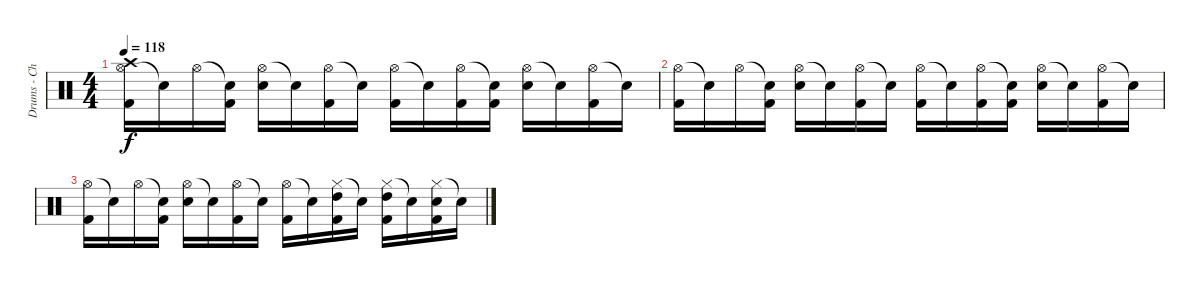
\track ("Drums - Chad" "Drums - Ch") {instrument percussion}
\staff {score}
\articulation defaults
\ts (4 4)
\tempo 118
\clef neutral
\ks c
("Hi-Hat (open)" "Kick (hit) 2" "Crash high (hit)").16{dy f} "Snare (hit)"{t}.16 "Hi-Hat (open)".16 ("Snare (hit)"{t} "Kick (hit) 2").16 ("Hi-Hat (open)" "Electric Snare (hit)").16 "Snare (hit)"{t}.16 ("Hi-Hat (open)" "Kick (hit) 2").16 "Snare (hit)"{t}.16 ("Hi-Hat (open)" "Kick (hit) 2").16 "Snare (hit)"{t}.16 ("Hi-Hat (open)" "Kick (hit) 2").16 ("Snare (hit)"{t} "Kick (hit) 2").16 ("Hi-Hat (open)" "Electric Snare (hit)").16 "Snare (hit)"{t}.16 ("Hi-Hat (open)" "Kick (hit) 2").16 "Snare (hit)"{t}.16 |
("Hi-Hat (open)" "Kick (hit) 2").16 "Snare (hit)"{t}.16 "Hi-Hat (open)".16 ("Snare (hit)"{t} "Kick (hit) 2").16 ("Hi-Hat (open)" "Electric Snare (hit)").16 "Snare (hit)"{t}.16 ("Hi-Hat (open)" "Kick (hit) 2").16 "Snare (hit)"{t}.16 ("Hi-Hat (open)" "Kick (hit) 2").16 "Snare (hit)"{t}.16 ("Hi-Hat (open)" "Kick (hit) 2").16 ("Snare (hit)"{t} "Kick (hit) 2").16 ("Hi-Hat (open)" "Electric Snare (hit)").16 "Snare (hit)"{t}.16 ("Hi-Hat (open)" "Kick (hit) 2").16 "Snare (hit)"{t}.16 |
("Hi-Hat (open)" "Kick (hit) 2").16 "Snare (hit)"{t}.16 "Hi-Hat (open)".16 ("Snare (hit)"{t} "Kick (hit) 2").16 ("Hi-Hat (open)" "Electric Snare (hit)").16 "Snare (hit)"{t}.16 ("Hi-Hat (open)" "Kick (hit) 2").16 "Snare (hit)"{t}.16 ("Hi-Hat (open)" "Kick (hit) 2").16 "Snare (hit)"{t}.16 ("Hi-Hat (closed)" "Kick (hit) 2" "High Tom (hit)").16 "Snare (hit)"{t}.16 ("Hi-Hat (closed)" "Kick (hit) 2" "High Tom (hit)").16 "Snare (hit)"{t}.16 ("Hi-Hat (closed)" "Kick (hit) 2" "Electric Snare (hit)").16 "Snare (hit)"{t}.16
